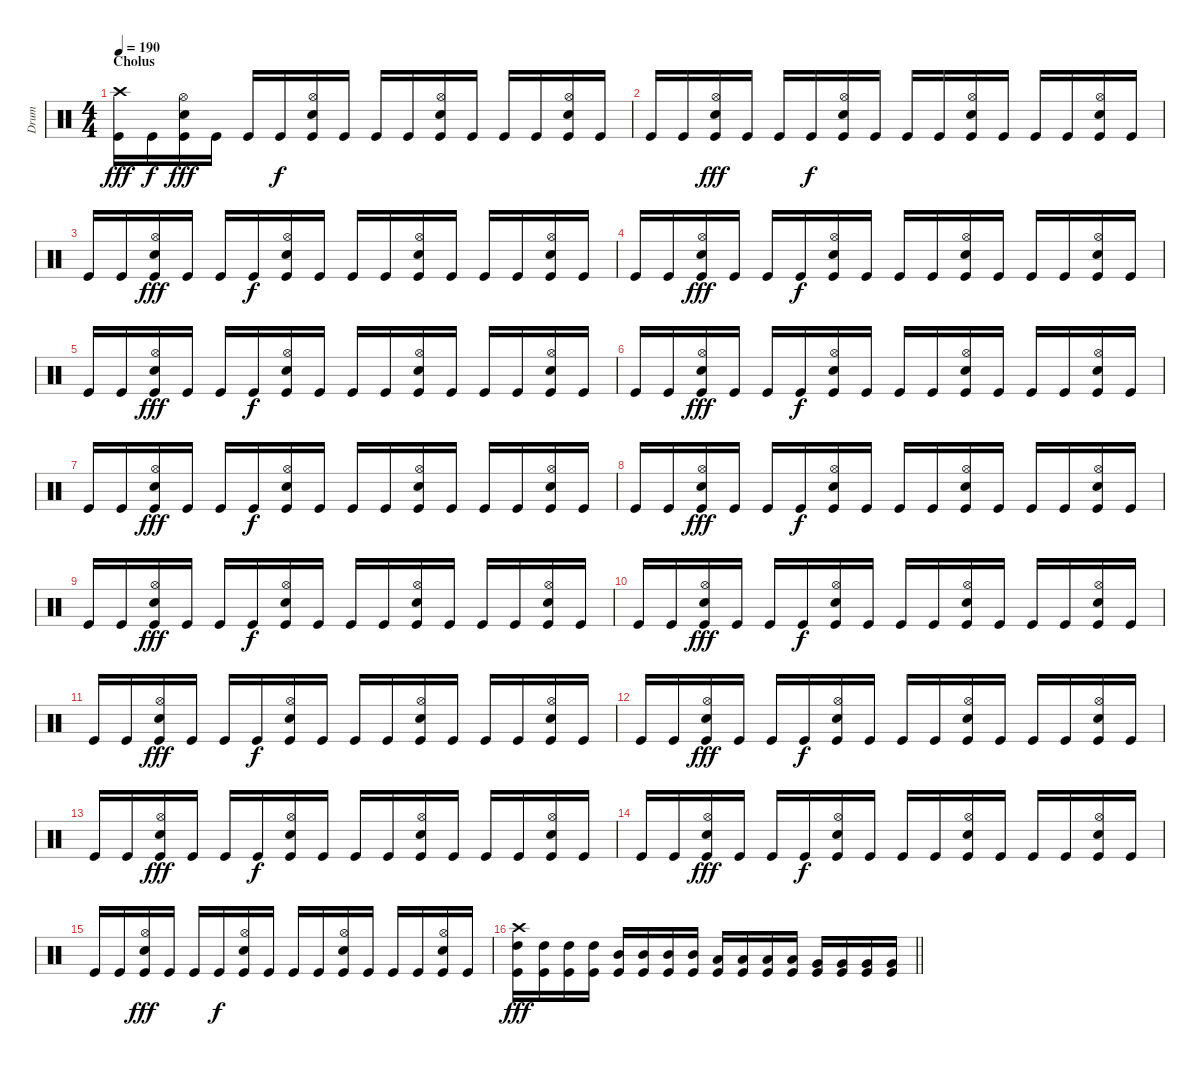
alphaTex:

\track ("Drum" "Drum") {instrument percussion}
\staff {score}
\articulation defaults
\ts (4 4)
\section ("" "Cholus")
\tempo 190
\clef neutral
\ks c
("Crash high (hit)" "Kick (hit)").16{dy fff} "Kick (hit)".16{dy f} ("Hi-Hat (open)" "Snare (hit) 2" "Kick (hit)").16{dy fff} "Kick (hit)".16 "Kick (hit)".16 "Kick (hit)".16{dy f} ("Hi-Hat (open)" "Snare (hit) 2" "Kick (hit)").16 "Kick (hit)".16 "Kick (hit)".16 "Kick (hit)".16 ("Hi-Hat (open)" "Snare (hit) 2" "Kick (hit)").16 "Kick (hit)".16 "Kick (hit)".16 "Kick (hit)".16 ("Hi-Hat (open)" "Snare (hit) 2" "Kick (hit)").16 "Kick (hit)".16 |
"Kick (hit)".16 "Kick (hit)".16 ("Hi-Hat (open)" "Snare (hit) 2" "Kick (hit)").16{dy fff} "Kick (hit)".16 "Kick (hit)".16 "Kick (hit)".16{dy f} ("Hi-Hat (open)" "Snare (hit) 2" "Kick (hit)").16 "Kick (hit)".16 "Kick (hit)".16 "Kick (hit)".16 ("Hi-Hat (open)" "Snare (hit) 2" "Kick (hit)").16 "Kick (hit)".16 "Kick (hit)".16 "Kick (hit)".16 ("Hi-Hat (open)" "Snare (hit) 2" "Kick (hit)").16 "Kick (hit)".16 |
"Kick (hit)".16 "Kick (hit)".16 ("Hi-Hat (open)" "Snare (hit) 2" "Kick (hit)").16{dy fff} "Kick (hit)".16 "Kick (hit)".16 "Kick (hit)".16{dy f} ("Hi-Hat (open)" "Snare (hit) 2" "Kick (hit)").16 "Kick (hit)".16 "Kick (hit)".16 "Kick (hit)".16 ("Hi-Hat (open)" "Snare (hit) 2" "Kick (hit)").16 "Kick (hit)".16 "Kick (hit)".16 "Kick (hit)".16 ("Hi-Hat (open)" "Snare (hit) 2" "Kick (hit)").16 "Kick (hit)".16 |
"Kick (hit)".16 "Kick (hit)".16 ("Hi-Hat (open)" "Snare (hit) 2" "Kick (hit)").16{dy fff} "Kick (hit)".16 "Kick (hit)".16 "Kick (hit)".16{dy f} ("Hi-Hat (open)" "Snare (hit) 2" "Kick (hit)").16 "Kick (hit)".16 "Kick (hit)".16 "Kick (hit)".16 ("Hi-Hat (open)" "Snare (hit) 2" "Kick (hit)").16 "Kick (hit)".16 "Kick (hit)".16 "Kick (hit)".16 ("Hi-Hat (open)" "Snare (hit) 2" "Kick (hit)").16 "Kick (hit)".16 |
"Kick (hit)".16 "Kick (hit)".16 ("Hi-Hat (open)" "Snare (hit) 2" "Kick (hit)").16{dy fff} "Kick (hit)".16 "Kick (hit)".16 "Kick (hit)".16{dy f} ("Hi-Hat (open)" "Snare (hit) 2" "Kick (hit)").16 "Kick (hit)".16 "Kick (hit)".16 "Kick (hit)".16 ("Hi-Hat (open)" "Snare (hit) 2" "Kick (hit)").16 "Kick (hit)".16 "Kick (hit)".16 "Kick (hit)".16 ("Hi-Hat (open)" "Snare (hit) 2" "Kick (hit)").16 "Kick (hit)".16 |
"Kick (hit)".16 "Kick (hit)".16 ("Hi-Hat (open)" "Snare (hit) 2" "Kick (hit)").16{dy fff} "Kick (hit)".16 "Kick (hit)".16 "Kick (hit)".16{dy f} ("Hi-Hat (open)" "Snare (hit) 2" "Kick (hit)").16 "Kick (hit)".16 "Kick (hit)".16 "Kick (hit)".16 ("Hi-Hat (open)" "Snare (hit) 2" "Kick (hit)").16 "Kick (hit)".16 "Kick (hit)".16 "Kick (hit)".16 ("Hi-Hat (open)" "Snare (hit) 2" "Kick (hit)").16 "Kick (hit)".16 |
"Kick (hit)".16 "Kick (hit)".16 ("Hi-Hat (open)" "Snare (hit) 2" "Kick (hit)").16{dy fff} "Kick (hit)".16 "Kick (hit)".16 "Kick (hit)".16{dy f} ("Hi-Hat (open)" "Snare (hit) 2" "Kick (hit)").16 "Kick (hit)".16 "Kick (hit)".16 "Kick (hit)".16 ("Hi-Hat (open)" "Snare (hit) 2" "Kick (hit)").16 "Kick (hit)".16 "Kick (hit)".16 "Kick (hit)".16 ("Hi-Hat (open)" "Snare (hit) 2" "Kick (hit)").16 "Kick (hit)".16 |
"Kick (hit)".16 "Kick (hit)".16 ("Hi-Hat (open)" "Snare (hit) 2" "Kick (hit)").16{dy fff} "Kick (hit)".16 "Kick (hit)".16 "Kick (hit)".16{dy f} ("Hi-Hat (open)" "Snare (hit) 2" "Kick (hit)").16 "Kick (hit)".16 "Kick (hit)".16 "Kick (hit)".16 ("Hi-Hat (open)" "Snare (hit) 2" "Kick (hit)").16 "Kick (hit)".16 "Kick (hit)".16 "Kick (hit)".16 ("Hi-Hat (open)" "Snare (hit) 2" "Kick (hit)").16 "Kick (hit)".16 |
"Kick (hit)".16 "Kick (hit)".16 ("Hi-Hat (open)" "Snare (hit) 2" "Kick (hit)").16{dy fff} "Kick (hit)".16 "Kick (hit)".16 "Kick (hit)".16{dy f} ("Hi-Hat (open)" "Snare (hit) 2" "Kick (hit)").16 "Kick (hit)".16 "Kick (hit)".16 "Kick (hit)".16 ("Hi-Hat (open)" "Snare (hit) 2" "Kick (hit)").16 "Kick (hit)".16 "Kick (hit)".16 "Kick (hit)".16 ("Hi-Hat (open)" "Snare (hit) 2" "Kick (hit)").16 "Kick (hit)".16 |
"Kick (hit)".16 "Kick (hit)".16 ("Hi-Hat (open)" "Snare (hit) 2" "Kick (hit)").16{dy fff} "Kick (hit)".16 "Kick (hit)".16 "Kick (hit)".16{dy f} ("Hi-Hat (open)" "Snare (hit) 2" "Kick (hit)").16 "Kick (hit)".16 "Kick (hit)".16 "Kick (hit)".16 ("Hi-Hat (open)" "Snare (hit) 2" "Kick (hit)").16 "Kick (hit)".16 "Kick (hit)".16 "Kick (hit)".16 ("Hi-Hat (open)" "Snare (hit) 2" "Kick (hit)").16 "Kick (hit)".16 |
"Kick (hit)".16 "Kick (hit)".16 ("Hi-Hat (open)" "Snare (hit) 2" "Kick (hit)").16{dy fff} "Kick (hit)".16 "Kick (hit)".16 "Kick (hit)".16{dy f} ("Hi-Hat (open)" "Snare (hit) 2" "Kick (hit)").16 "Kick (hit)".16 "Kick (hit)".16 "Kick (hit)".16 ("Hi-Hat (open)" "Snare (hit) 2" "Kick (hit)").16 "Kick (hit)".16 "Kick (hit)".16 "Kick (hit)".16 ("Hi-Hat (open)" "Snare (hit) 2" "Kick (hit)").16 "Kick (hit)".16 |
"Kick (hit)".16 "Kick (hit)".16 ("Hi-Hat (open)" "Snare (hit) 2" "Kick (hit)").16{dy fff} "Kick (hit)".16 "Kick (hit)".16 "Kick (hit)".16{dy f} ("Hi-Hat (open)" "Snare (hit) 2" "Kick (hit)").16 "Kick (hit)".16 "Kick (hit)".16 "Kick (hit)".16 ("Hi-Hat (open)" "Snare (hit) 2" "Kick (hit)").16 "Kick (hit)".16 "Kick (hit)".16 "Kick (hit)".16 ("Hi-Hat (open)" "Snare (hit) 2" "Kick (hit)").16 "Kick (hit)".16 |
"Kick (hit)".16 "Kick (hit)".16 ("Hi-Hat (open)" "Snare (hit) 2" "Kick (hit)").16{dy fff} "Kick (hit)".16 "Kick (hit)".16 "Kick (hit)".16{dy f} ("Hi-Hat (open)" "Snare (hit) 2" "Kick (hit)").16 "Kick (hit)".16 "Kick (hit)".16 "Kick (hit)".16 ("Hi-Hat (open)" "Snare (hit) 2" "Kick (hit)").16 "Kick (hit)".16 "Kick (hit)".16 "Kick (hit)".16 ("Hi-Hat (open)" "Snare (hit) 2" "Kick (hit)").16 "Kick (hit)".16 |
"Kick (hit)".16 "Kick (hit)".16 ("Hi-Hat (open)" "Snare (hit) 2" "Kick (hit)").16{dy fff} "Kick (hit)".16 "Kick (hit)".16 "Kick (hit)".16{dy f} ("Hi-Hat (open)" "Snare (hit) 2" "Kick (hit)").16 "Kick (hit)".16 "Kick (hit)".16 "Kick (hit)".16 ("Hi-Hat (open)" "Snare (hit) 2" "Kick (hit)").16 "Kick (hit)".16 "Kick (hit)".16 "Kick (hit)".16 ("Hi-Hat (open)" "Snare (hit) 2" "Kick (hit)").16 "Kick (hit)".16 |
"Kick (hit)".16 "Kick (hit)".16 ("Hi-Hat (open)" "Snare (hit) 2" "Kick (hit)").16{dy fff} "Kick (hit)".16 "Kick (hit)".16 "Kick (hit)".16{dy f} ("Hi-Hat (open)" "Snare (hit) 2" "Kick (hit)").16 "Kick (hit)".16 "Kick (hit)".16 "Kick (hit)".16 ("Hi-Hat (open)" "Snare (hit) 2" "Kick (hit)").16 "Kick (hit)".16 "Kick (hit)".16 "Kick (hit)".16 ("Hi-Hat (open)" "Snare (hit) 2" "Kick (hit)").16 "Kick (hit)".16 |
\barLineRight lightlight
("Crash high (hit)" "High Tom (hit)" "Kick (hit)").16{dy fff} ("High Tom (hit)" "Kick (hit)").16 ("High Tom (hit)" "Kick (hit)").16 ("High Tom (hit)" "Kick (hit)").16 ("Mid Tom (hit)" "Kick (hit)").16 ("Mid Tom (hit)" "Kick (hit)").16 ("Mid Tom (hit)" "Kick (hit)").16 ("Mid Tom (hit)" "Kick (hit)").16 ("Low Tom (hit)" "Kick (hit)").16 ("Low Tom (hit)" "Kick (hit)").16 ("Low Tom (hit)" "Kick (hit)").16 ("Low Tom (hit)" "Kick (hit)").16 ("Very Low Tom (hit)" "Kick (hit)").16 ("Very Low Tom (hit)" "Kick (hit)").16 ("Very Low Tom (hit)" "Kick (hit)").16 ("Very Low Tom (hit)" "Kick (hit)").16
